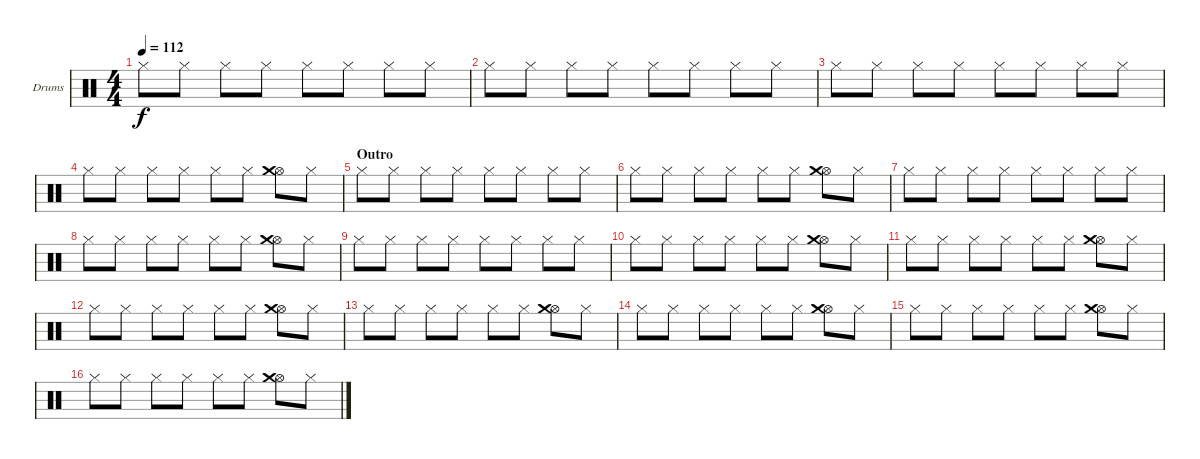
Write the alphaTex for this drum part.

\bracketExtendMode groupsimilarinstruments
\firstSystemTrackNameOrientation horizontal
\otherSystemsTrackNameOrientation horizontal
\track ("Drumkit" "Drums") {instrument percussion}
\staff {score}
\articulation defaults
\ts (4 4)
\tempo 112
\clef neutral
\ks c "Hi-Hat (closed)".8{dy f} "Hi-Hat (closed)".8 "Hi-Hat (closed)".8 "Hi-Hat (closed)".8 "Hi-Hat (closed)".8 "Hi-Hat (closed)".8 "Hi-Hat (closed)".8 "Hi-Hat (closed)".8
|
"Hi-Hat (closed)".8 "Hi-Hat (closed)".8 "Hi-Hat (closed)".8 "Hi-Hat (closed)".8 "Hi-Hat (closed)".8 "Hi-Hat (closed)".8 "Hi-Hat (closed)".8 "Hi-Hat (closed)".8 |
"Hi-Hat (closed)".8 "Hi-Hat (closed)".8 "Hi-Hat (closed)".8 "Hi-Hat (closed)".8 "Hi-Hat (closed)".8 "Hi-Hat (closed)".8 "Hi-Hat (closed)".8 "Hi-Hat (closed)".8 |
"Hi-Hat (closed)".8 "Hi-Hat (closed)".8 "Hi-Hat (closed)".8 "Hi-Hat (closed)".8 "Hi-Hat (closed)".8 "Hi-Hat (closed)".8 ("Hi-Hat (open)" "Crash medium (hit)").8 "Hi-Hat (closed)".8 |
\section ("" "Outro")
"Hi-Hat (closed)".8 "Hi-Hat (closed)".8 "Hi-Hat (closed)".8 "Hi-Hat (closed)".8 "Hi-Hat (closed)".8 "Hi-Hat (closed)".8 "Hi-Hat (closed)".8 "Hi-Hat (closed)".8 |
"Hi-Hat (closed)".8 "Hi-Hat (closed)".8 "Hi-Hat (closed)".8 "Hi-Hat (closed)".8 "Hi-Hat (closed)".8 "Hi-Hat (closed)".8 ("Hi-Hat (open)" "Crash medium (hit)").8 "Hi-Hat (closed)".8 |
"Hi-Hat (closed)".8 "Hi-Hat (closed)".8 "Hi-Hat (closed)".8 "Hi-Hat (closed)".8 "Hi-Hat (closed)".8 "Hi-Hat (closed)".8 "Hi-Hat (closed)".8 "Hi-Hat (closed)".8 |
"Hi-Hat (closed)".8 "Hi-Hat (closed)".8 "Hi-Hat (closed)".8 "Hi-Hat (closed)".8 "Hi-Hat (closed)".8 "Hi-Hat (closed)".8 ("Hi-Hat (open)" "Crash medium (hit)").8 "Hi-Hat (closed)".8 |
"Hi-Hat (closed)".8 "Hi-Hat (closed)".8 "Hi-Hat (closed)".8 "Hi-Hat (closed)".8 "Hi-Hat (closed)".8 "Hi-Hat (closed)".8 "Hi-Hat (closed)".8 "Hi-Hat (closed)".8 |
"Hi-Hat (closed)".8 "Hi-Hat (closed)".8 "Hi-Hat (closed)".8 "Hi-Hat (closed)".8 "Hi-Hat (closed)".8 "Hi-Hat (closed)".8 ("Hi-Hat (open)" "Crash medium (hit)").8 "Hi-Hat (closed)".8 |
"Hi-Hat (closed)".8 "Hi-Hat (closed)".8 "Hi-Hat (closed)".8 "Hi-Hat (closed)".8 "Hi-Hat (closed)".8 "Hi-Hat (closed)".8 ("Hi-Hat (open)" "Crash medium (hit)").8 "Hi-Hat (closed)".8 |
"Hi-Hat (closed)".8 "Hi-Hat (closed)".8 "Hi-Hat (closed)".8 "Hi-Hat (closed)".8 "Hi-Hat (closed)".8 "Hi-Hat (closed)".8 ("Hi-Hat (open)" "Crash medium (hit)").8 "Hi-Hat (closed)".8 |
"Hi-Hat (closed)".8 "Hi-Hat (closed)".8 "Hi-Hat (closed)".8 "Hi-Hat (closed)".8 "Hi-Hat (closed)".8 "Hi-Hat (closed)".8 ("Hi-Hat (open)" "Crash medium (hit)").8 "Hi-Hat (closed)".8 |
"Hi-Hat (closed)".8 "Hi-Hat (closed)".8 "Hi-Hat (closed)".8 "Hi-Hat (closed)".8 "Hi-Hat (closed)".8 "Hi-Hat (closed)".8 ("Hi-Hat (open)" "Crash medium (hit)").8 "Hi-Hat (closed)".8 |
"Hi-Hat (closed)".8 "Hi-Hat (closed)".8 "Hi-Hat (closed)".8 "Hi-Hat (closed)".8 "Hi-Hat (closed)".8 "Hi-Hat (closed)".8 ("Hi-Hat (open)" "Crash medium (hit)").8 "Hi-Hat (closed)".8 |
"Hi-Hat (closed)".8 "Hi-Hat (closed)".8 "Hi-Hat (closed)".8 "Hi-Hat (closed)".8 "Hi-Hat (closed)".8 "Hi-Hat (closed)".8 ("Hi-Hat (open)" "Crash medium (hit)").8 "Hi-Hat (closed)".8
